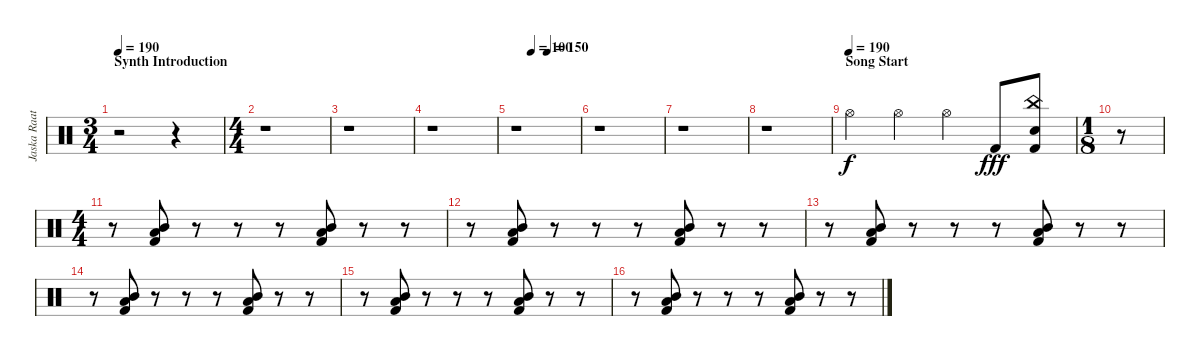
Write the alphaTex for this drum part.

\track ("Jaska Raatikainen (Drums)" "Jaska Raat") {instrument percussion}
\staff {score}
\articulation defaults
\ts (3 4)
\section ("" "Synth Introduction")
\tempo 190
\tempo 150
\tempo 190
\clef neutral
\ks c
r.2{dy f} r.4 |
\ts (4 4)
r.1 |
r.1 |
r.1 |
\tempo (100 0.25)
\tempo (150 0.5)
r.1 |
r.1 |
r.1 |
r.1 |
\section ("" "Song Start")
\tempo (190)
"Hi-Hat (open)".4 "Hi-Hat (open)".4 "Hi-Hat (open)".4 "Kick (hit) 2".8{dy fff} ("China (hit)" "Electric Snare (hit)" "Kick (hit) 2").8 |
\ts (1 8)
r.8 |
\ts (4 4)
r.8 ("Mid Tom (hit)" "Low Tom (hit)" "Kick (hit) 2").8 r.8 r.8 r.8 ("Mid Tom (hit)" "Low Tom (hit)" "Kick (hit) 2").8 r.8 r.8 |
r.8 ("Mid Tom (hit)" "Low Tom (hit)" "Kick (hit) 2").8 r.8 r.8 r.8 ("Mid Tom (hit)" "Low Tom (hit)" "Kick (hit) 2").8 r.8 r.8 |
r.8 ("Mid Tom (hit)" "Low Tom (hit)" "Kick (hit) 2").8 r.8 r.8 r.8 ("Mid Tom (hit)" "Low Tom (hit)" "Kick (hit) 2").8 r.8 r.8 |
r.8 ("Mid Tom (hit)" "Low Tom (hit)" "Kick (hit) 2").8 r.8 r.8 r.8 ("Mid Tom (hit)" "Low Tom (hit)" "Kick (hit) 2").8 r.8 r.8 |
r.8 ("Mid Tom (hit)" "Low Tom (hit)" "Kick (hit) 2").8 r.8 r.8 r.8 ("Mid Tom (hit)" "Low Tom (hit)" "Kick (hit) 2").8 r.8 r.8 |
r.8 ("Mid Tom (hit)" "Low Tom (hit)" "Kick (hit) 2").8 r.8 r.8 r.8 ("Mid Tom (hit)" "Low Tom (hit)" "Kick (hit) 2").8 r.8 r.8
